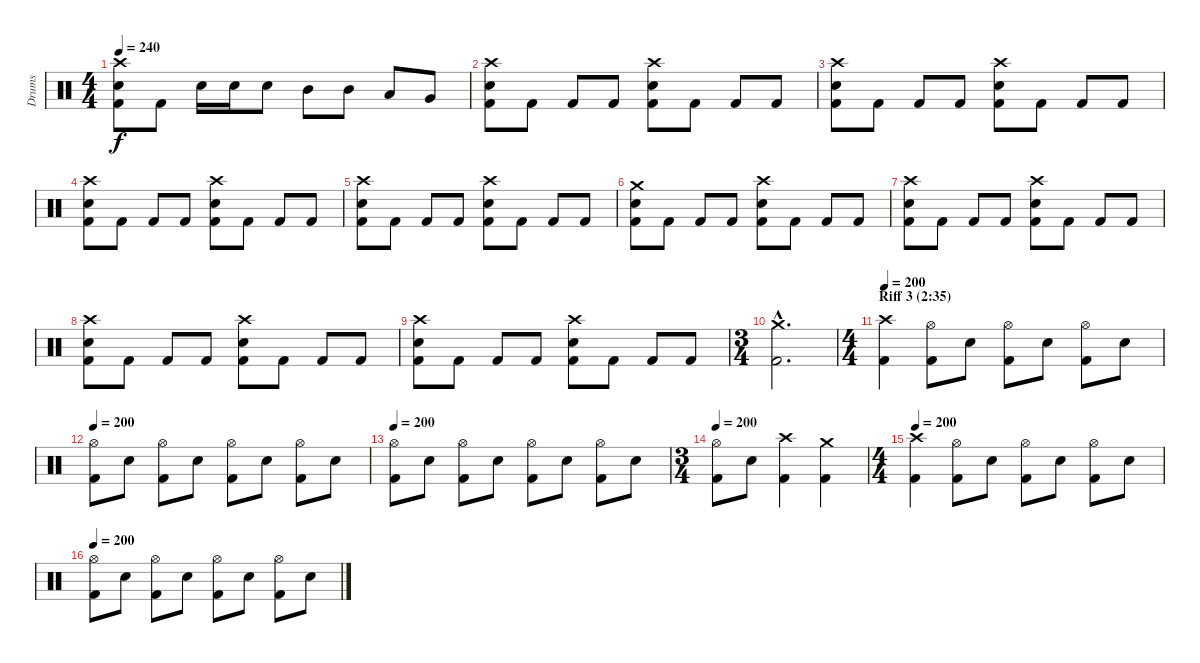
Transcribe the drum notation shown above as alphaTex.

\track ("Drums" "Drums") {instrument percussion}
\staff {score}
\articulation defaults
\ts (4 4)
\tempo 240
\clef neutral
\ks c
("Crash high (hit)" "Electric Snare (hit)" "Kick (hit) 2").8{dy f} "Kick (hit) 2".8 "Electric Snare (hit)".16 "Electric Snare (hit)".16 "Electric Snare (hit)".8 "Mid Tom (hit)".8 "Mid Tom (hit)".8 "Low Tom (hit)".8 "Very Low Tom (hit)".8 |
("Crash high (hit)" "Electric Snare (hit)" "Kick (hit) 2").8 "Kick (hit) 2".8 "Kick (hit) 2".8 "Kick (hit) 2".8 ("Crash high (hit)" "Electric Snare (hit)" "Kick (hit) 2").8 "Kick (hit) 2".8 "Kick (hit) 2".8 "Kick (hit) 2".8 |
("Crash high (hit)" "Electric Snare (hit)" "Kick (hit) 2").8 "Kick (hit) 2".8 "Kick (hit) 2".8 "Kick (hit) 2".8 ("Crash high (hit)" "Electric Snare (hit)" "Kick (hit) 2").8 "Kick (hit) 2".8 "Kick (hit) 2".8 "Kick (hit) 2".8 |
("Crash high (hit)" "Electric Snare (hit)" "Kick (hit) 2").8 "Kick (hit) 2".8 "Kick (hit) 2".8 "Kick (hit) 2".8 ("Crash high (hit)" "Electric Snare (hit)" "Kick (hit) 2").8 "Kick (hit) 2".8 "Kick (hit) 2".8 "Kick (hit) 2".8 |
("Crash high (hit)" "Electric Snare (hit)" "Kick (hit) 2").8 "Kick (hit) 2".8 "Kick (hit) 2".8 "Kick (hit) 2".8 ("Crash high (hit)" "Electric Snare (hit)" "Kick (hit) 2").8 "Kick (hit) 2".8 "Kick (hit) 2".8 "Kick (hit) 2".8 |
("Crash medium (hit)" "Electric Snare (hit)" "Kick (hit) 2").8 "Kick (hit) 2".8 "Kick (hit) 2".8 "Kick (hit) 2".8 ("Crash high (hit)" "Electric Snare (hit)" "Kick (hit) 2").8 "Kick (hit) 2".8 "Kick (hit) 2".8 "Kick (hit) 2".8 |
("Crash high (hit)" "Electric Snare (hit)" "Kick (hit) 2").8 "Kick (hit) 2".8 "Kick (hit) 2".8 "Kick (hit) 2".8 ("Crash high (hit)" "Electric Snare (hit)" "Kick (hit) 2").8 "Kick (hit) 2".8 "Kick (hit) 2".8 "Kick (hit) 2".8 |
("Crash high (hit)" "Electric Snare (hit)" "Kick (hit) 2").8 "Kick (hit) 2".8 "Kick (hit) 2".8 "Kick (hit) 2".8 ("Crash high (hit)" "Electric Snare (hit)" "Kick (hit) 2").8 "Kick (hit) 2".8 "Kick (hit) 2".8 "Kick (hit) 2".8 |
("Crash high (hit)" "Electric Snare (hit)" "Kick (hit) 2").8 "Kick (hit) 2".8 "Kick (hit) 2".8 "Kick (hit) 2".8 ("Crash high (hit)" "Electric Snare (hit)" "Kick (hit) 2").8 "Kick (hit) 2".8 "Kick (hit) 2".8 "Kick (hit) 2".8 |
\ts (3 4)
("Crash medium (hit)"{hac} "Kick (hit) 2"{hac}).2{d} |
\ts (4 4)
\section ("" "Riff 3 (2:35)")
\tempo 200
("Crash high (hit)" "Kick (hit) 2").4 ("Hi-Hat (open)" "Kick (hit) 2").8 "Electric Snare (hit)".8 ("Hi-Hat (open)" "Kick (hit) 2").8 "Electric Snare (hit)".8 ("Hi-Hat (open)" "Kick (hit) 2").8 "Electric Snare (hit)".8 |
\tempo 200
("Hi-Hat (open)" "Kick (hit) 2").8 "Electric Snare (hit)".8 ("Hi-Hat (open)" "Kick (hit) 2").8 "Electric Snare (hit)".8 ("Hi-Hat (open)" "Kick (hit) 2").8 "Electric Snare (hit)".8 ("Hi-Hat (open)" "Kick (hit) 2").8 "Electric Snare (hit)".8 |
\tempo 200
("Hi-Hat (open)" "Kick (hit) 2").8 "Electric Snare (hit)".8 ("Hi-Hat (open)" "Kick (hit) 2").8 "Electric Snare (hit)".8 ("Hi-Hat (open)" "Kick (hit) 2").8 "Electric Snare (hit)".8 ("Hi-Hat (open)" "Kick (hit) 2").8 "Electric Snare (hit)".8 |
\ts (3 4)
\tempo 200
("Hi-Hat (open)" "Kick (hit) 2").8 "Electric Snare (hit)".8 ("Crash high (hit)" "Kick (hit) 2").4 ("Crash medium (hit)" "Kick (hit) 2").4 |
\ts (4 4)
\tempo 200
("Crash high (hit)" "Kick (hit) 2").4 ("Hi-Hat (open)" "Kick (hit) 2").8 "Electric Snare (hit)".8 ("Hi-Hat (open)" "Kick (hit) 2").8 "Electric Snare (hit)".8 ("Hi-Hat (open)" "Kick (hit) 2").8 "Electric Snare (hit)".8 |
\tempo 200
("Hi-Hat (open)" "Kick (hit) 2").8 "Electric Snare (hit)".8 ("Hi-Hat (open)" "Kick (hit) 2").8 "Electric Snare (hit)".8 ("Hi-Hat (open)" "Kick (hit) 2").8 "Electric Snare (hit)".8 ("Hi-Hat (open)" "Kick (hit) 2").8 "Electric Snare (hit)".8
